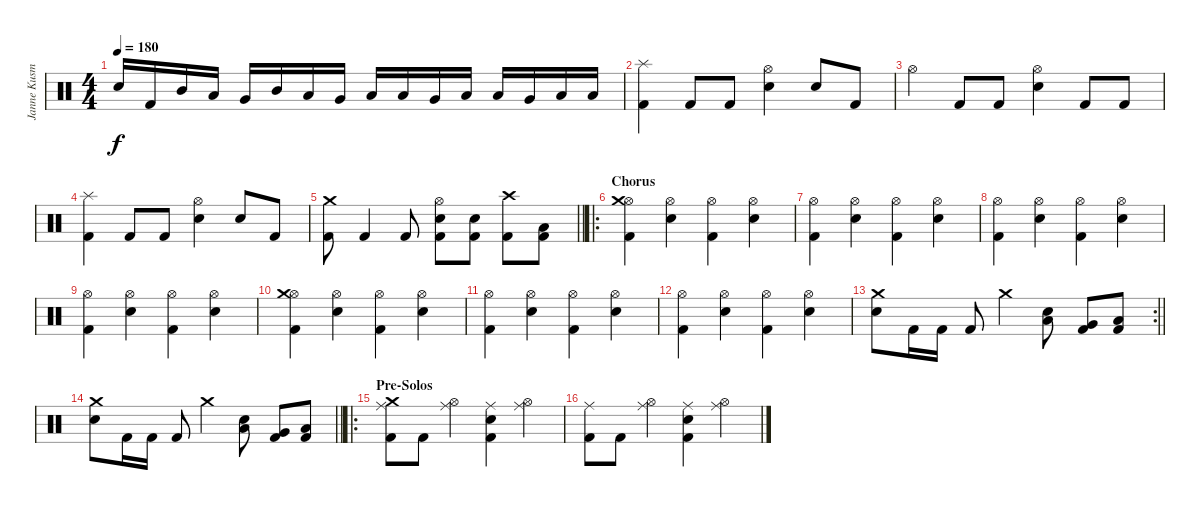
\track ("Janne Kusmin" "Janne Kusm") {instrument percussion}
\staff {score}
\articulation defaults
\ts (4 4)
\tempo 180
\clef neutral
\ks c "Electric Snare (hit)".16{dy f} "Kick (hit) 2".16 "Mid Tom (hit)".16 "Low Tom (hit)".16 "Very Low Tom (hit)".16 "Mid Tom (hit)".16 "Low Tom (hit)".16 "Very Low Tom (hit)".16 "Low Floor Tom (hit)".16 "Low Tom (hit)".16 "Very Low Tom (hit)".16 "Low Floor Tom (hit)".16 "Low Floor Tom (hit)".16 "Very Low Tom (hit)".16 "Low Floor Tom (hit)".16 "Low Floor Tom (hit)".16
|
("Kick (hit) 2" "Splash (hit)").4 "Kick (hit) 2".8 "Kick (hit) 2".8 ("Electric Snare (hit)" "Hi-Hat (open)").4 "Electric Snare (hit)".8 "Kick (hit) 2".8 |
"Hi-Hat (open)".4 "Kick (hit) 2".8 "Kick (hit) 2".8 ("Electric Snare (hit)" "Hi-Hat (open)").4 "Kick (hit) 2".8 "Kick (hit) 2".8 |
("Kick (hit) 2" "Splash (hit)").4 "Kick (hit) 2".8 "Kick (hit) 2".8 ("Electric Snare (hit)" "Hi-Hat (open)").4 "Electric Snare (hit)".8 "Kick (hit) 2".8 |
\barLineRight lightlight
("Kick (hit) 2" "Crash medium (hit)").8 "Kick (hit) 2".4 "Kick (hit) 2".8 ("Electric Snare (hit)" "Hi-Hat (open)" "Kick (hit) 2").8 ("Electric Snare (hit)" "Kick (hit) 2").8 ("Crash high (hit)" "Kick (hit) 2").8 ("Low Tom (hit)" "Kick (hit) 2").8 |
\ro
\section ("" "Chorus")
("Kick (hit) 2" "Hi-Hat (open)" "Crash medium (hit)").4 ("Electric Snare (hit)" "Hi-Hat (open)").4 ("Kick (hit) 2" "Hi-Hat (open)").4 ("Electric Snare (hit)" "Hi-Hat (open)").4 |
("Kick (hit) 2" "Hi-Hat (open)").4 ("Electric Snare (hit)" "Hi-Hat (open)").4 ("Kick (hit) 2" "Hi-Hat (open)").4 ("Electric Snare (hit)" "Hi-Hat (open)").4 |
("Kick (hit) 2" "Hi-Hat (open)").4 ("Electric Snare (hit)" "Hi-Hat (open)").4 ("Kick (hit) 2" "Hi-Hat (open)").4 ("Electric Snare (hit)" "Hi-Hat (open)").4 |
("Kick (hit) 2" "Hi-Hat (open)").4 ("Electric Snare (hit)" "Hi-Hat (open)").4 ("Kick (hit) 2" "Hi-Hat (open)").4 ("Electric Snare (hit)" "Hi-Hat (open)").4 |
("Kick (hit) 2" "Hi-Hat (open)" "Crash medium (hit)").4 ("Electric Snare (hit)" "Hi-Hat (open)").4 ("Kick (hit) 2" "Hi-Hat (open)").4 ("Electric Snare (hit)" "Hi-Hat (open)").4 |
("Kick (hit) 2" "Hi-Hat (open)").4 ("Electric Snare (hit)" "Hi-Hat (open)").4 ("Kick (hit) 2" "Hi-Hat (open)").4 ("Electric Snare (hit)" "Hi-Hat (open)").4 |
("Kick (hit) 2" "Hi-Hat (open)").4 ("Electric Snare (hit)" "Hi-Hat (open)").4 ("Kick (hit) 2" "Hi-Hat (open)").4 ("Electric Snare (hit)" "Hi-Hat (open)").4 |
\rc 2
\barLineRight lightlight
("Electric Snare (hit)" "Crash medium (hit)").8 "Kick (hit) 2".16 "Kick (hit) 2".16 "Kick (hit) 2".8 "Crash medium (hit)".4 ("Electric Snare (hit)" "Low Tom (hit)").8 ("Kick (hit) 2" "Very Low Tom (hit)").8 ("Kick (hit) 2" "Low Floor Tom (hit)").8 |
\barLineRight lightlight
("Electric Snare (hit)" "Crash medium (hit)").8 "Kick (hit) 2".16 "Kick (hit) 2".16 "Kick (hit) 2".8 "Crash medium (hit)".4 ("Electric Snare (hit)" "Low Tom (hit)").8 ("Kick (hit) 2" "Very Low Tom (hit)").8 ("Kick (hit) 2" "Low Floor Tom (hit)").8 |
\ro
\section ("" "Pre-Solos")
("Kick (hit) 2" "Crash medium (hit)" "Ride (middle)").8 "Kick (hit) 2".8 ("Hi-Hat (open)" "Ride (middle)").4 ("Kick (hit) 2" "Electric Snare (hit)" "Ride (middle)").4 ("Hi-Hat (open)" "Ride (middle)").4 |
("Kick (hit) 2" "Ride (middle)").8 "Kick (hit) 2".8 ("Hi-Hat (open)" "Ride (middle)").4 ("Kick (hit) 2" "Electric Snare (hit)" "Ride (middle)").4 ("Hi-Hat (open)" "Ride (middle)").4
